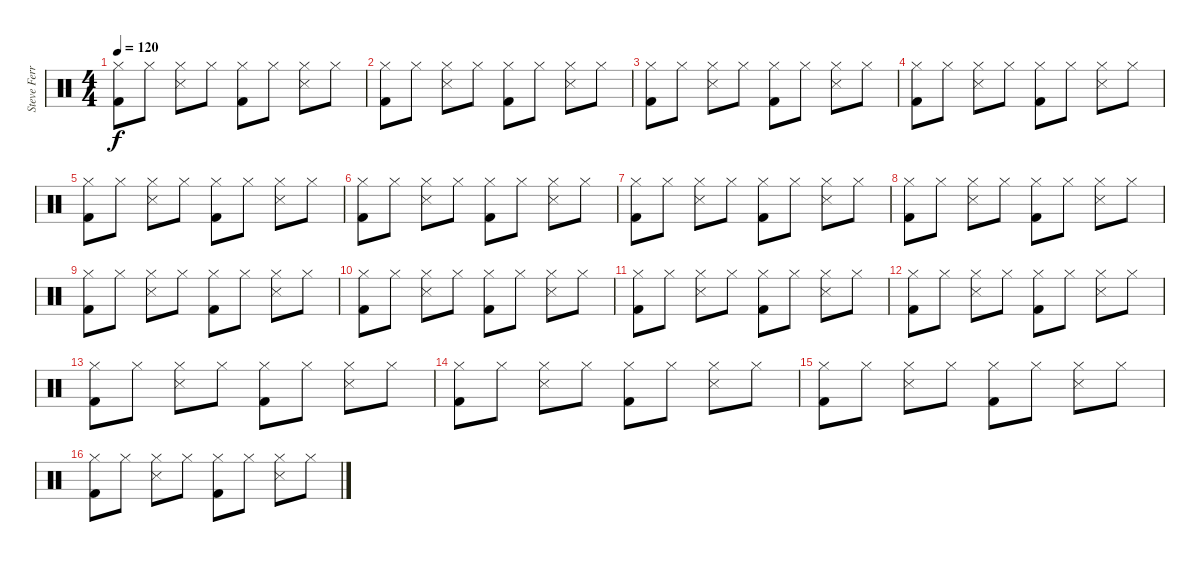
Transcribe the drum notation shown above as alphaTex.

\track ("Steve Ferrone" "Steve Ferr") {instrument percussion}
\staff {score}
\articulation defaults
\ts (4 4)
\tempo 120
\clef neutral
\ks c
("Kick (hit) 2" "Hi-Hat (closed)").8{dy f} "Hi-Hat (closed)".8 ("Snare (side stick) 3" "Hi-Hat (closed)").8 "Hi-Hat (closed)".8 ("Kick (hit) 2" "Hi-Hat (closed)").8 "Hi-Hat (closed)".8 ("Snare (side stick) 3" "Hi-Hat (closed)").8 "Hi-Hat (closed)".8 |
("Kick (hit) 2" "Hi-Hat (closed)").8 "Hi-Hat (closed)".8 ("Snare (side stick) 3" "Hi-Hat (closed)").8 "Hi-Hat (closed)".8 ("Kick (hit) 2" "Hi-Hat (closed)").8 "Hi-Hat (closed)".8 ("Snare (side stick) 3" "Hi-Hat (closed)").8 "Hi-Hat (closed)".8 |
("Kick (hit) 2" "Hi-Hat (closed)").8 "Hi-Hat (closed)".8 ("Snare (side stick) 3" "Hi-Hat (closed)").8 "Hi-Hat (closed)".8 ("Kick (hit) 2" "Hi-Hat (closed)").8 "Hi-Hat (closed)".8 ("Snare (side stick) 3" "Hi-Hat (closed)").8 "Hi-Hat (closed)".8 |
("Kick (hit) 2" "Hi-Hat (closed)").8 "Hi-Hat (closed)".8 ("Snare (side stick) 3" "Hi-Hat (closed)").8 "Hi-Hat (closed)".8 ("Kick (hit) 2" "Hi-Hat (closed)").8 "Hi-Hat (closed)".8 ("Snare (side stick) 3" "Hi-Hat (closed)").8 "Hi-Hat (closed)".8 |
("Kick (hit) 2" "Hi-Hat (closed)").8 "Hi-Hat (closed)".8 ("Snare (side stick) 3" "Hi-Hat (closed)").8 "Hi-Hat (closed)".8 ("Kick (hit) 2" "Hi-Hat (closed)").8 "Hi-Hat (closed)".8 ("Snare (side stick) 3" "Hi-Hat (closed)").8 "Hi-Hat (closed)".8 |
("Kick (hit) 2" "Hi-Hat (closed)").8 "Hi-Hat (closed)".8 ("Snare (side stick) 3" "Hi-Hat (closed)").8 "Hi-Hat (closed)".8 ("Kick (hit) 2" "Hi-Hat (closed)").8 "Hi-Hat (closed)".8 ("Snare (side stick) 3" "Hi-Hat (closed)").8 "Hi-Hat (closed)".8 |
("Kick (hit) 2" "Hi-Hat (closed)").8 "Hi-Hat (closed)".8 ("Snare (side stick) 3" "Hi-Hat (closed)").8 "Hi-Hat (closed)".8 ("Kick (hit) 2" "Hi-Hat (closed)").8 "Hi-Hat (closed)".8 ("Snare (side stick) 3" "Hi-Hat (closed)").8 "Hi-Hat (closed)".8 |
("Kick (hit) 2" "Hi-Hat (closed)").8 "Hi-Hat (closed)".8 ("Snare (side stick) 3" "Hi-Hat (closed)").8 "Hi-Hat (closed)".8 ("Kick (hit) 2" "Hi-Hat (closed)").8 "Hi-Hat (closed)".8 ("Snare (side stick) 3" "Hi-Hat (closed)").8 "Hi-Hat (closed)".8 |
("Kick (hit) 2" "Hi-Hat (closed)").8 "Hi-Hat (closed)".8 ("Snare (side stick) 3" "Hi-Hat (closed)").8 "Hi-Hat (closed)".8 ("Kick (hit) 2" "Hi-Hat (closed)").8 "Hi-Hat (closed)".8 ("Snare (side stick) 3" "Hi-Hat (closed)").8 "Hi-Hat (closed)".8 |
("Kick (hit) 2" "Hi-Hat (closed)").8 "Hi-Hat (closed)".8 ("Snare (side stick) 3" "Hi-Hat (closed)").8 "Hi-Hat (closed)".8 ("Kick (hit) 2" "Hi-Hat (closed)").8 "Hi-Hat (closed)".8 ("Snare (side stick) 3" "Hi-Hat (closed)").8 "Hi-Hat (closed)".8 |
("Kick (hit) 2" "Hi-Hat (closed)").8 "Hi-Hat (closed)".8 ("Snare (side stick) 3" "Hi-Hat (closed)").8 "Hi-Hat (closed)".8 ("Kick (hit) 2" "Hi-Hat (closed)").8 "Hi-Hat (closed)".8 ("Snare (side stick) 3" "Hi-Hat (closed)").8 "Hi-Hat (closed)".8 |
("Kick (hit) 2" "Hi-Hat (closed)").8 "Hi-Hat (closed)".8 ("Snare (side stick) 3" "Hi-Hat (closed)").8 "Hi-Hat (closed)".8 ("Kick (hit) 2" "Hi-Hat (closed)").8 "Hi-Hat (closed)".8 ("Snare (side stick) 3" "Hi-Hat (closed)").8 "Hi-Hat (closed)".8 |
("Kick (hit) 2" "Hi-Hat (closed)").8 "Hi-Hat (closed)".8 ("Snare (side stick) 3" "Hi-Hat (closed)").8 "Hi-Hat (closed)".8 ("Kick (hit) 2" "Hi-Hat (closed)").8 "Hi-Hat (closed)".8 ("Snare (side stick) 3" "Hi-Hat (closed)").8 "Hi-Hat (closed)".8 |
("Kick (hit) 2" "Hi-Hat (closed)").8 "Hi-Hat (closed)".8 ("Snare (side stick) 3" "Hi-Hat (closed)").8 "Hi-Hat (closed)".8 ("Kick (hit) 2" "Hi-Hat (closed)").8 "Hi-Hat (closed)".8 ("Snare (side stick) 3" "Hi-Hat (closed)").8 "Hi-Hat (closed)".8 |
("Kick (hit) 2" "Hi-Hat (closed)").8 "Hi-Hat (closed)".8 ("Snare (side stick) 3" "Hi-Hat (closed)").8 "Hi-Hat (closed)".8 ("Kick (hit) 2" "Hi-Hat (closed)").8 "Hi-Hat (closed)".8 ("Snare (side stick) 3" "Hi-Hat (closed)").8 "Hi-Hat (closed)".8 |
("Kick (hit) 2" "Hi-Hat (closed)").8 "Hi-Hat (closed)".8 ("Snare (side stick) 3" "Hi-Hat (closed)").8 "Hi-Hat (closed)".8 ("Kick (hit) 2" "Hi-Hat (closed)").8 "Hi-Hat (closed)".8 ("Snare (side stick) 3" "Hi-Hat (closed)").8 "Hi-Hat (closed)".8
